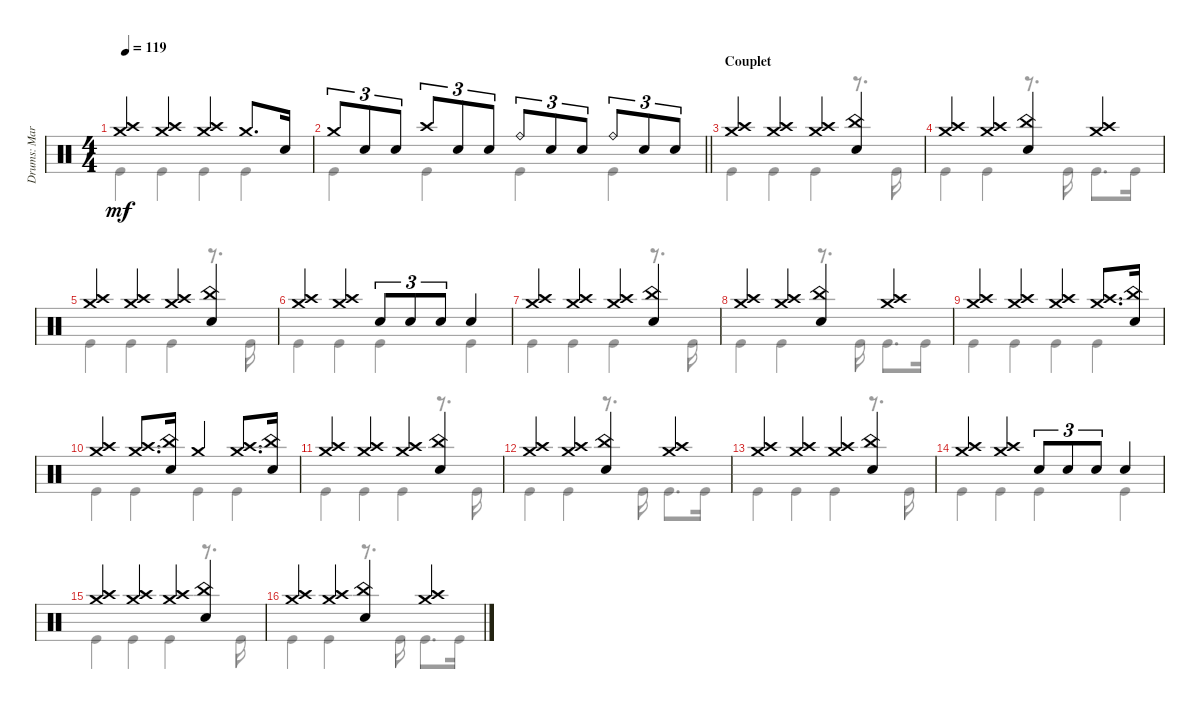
\track ("Drums: Mario Duplantier" "Drums: Mar") {instrument percussion}
\staff {score}
\articulation defaults
\voice
\ts (4 4)
\tempo 119
\clef neutral
\ks c
("Crash medium (hit)" "Crash high (hit)").4{dy mf} ("Crash medium (hit)" "Crash high (hit)").4 ("Crash medium (hit)" "Crash high (hit)").4 "Crash medium (hit)".8{d} "Snare (hit) 2".16 |
\barLineRight lightlight "Crash medium (hit)".8{tu (3 2)} "Snare (hit) 2".8{tu (3 2)} "Snare (hit) 2".8{tu (3 2)} "Crash high (hit)".8{tu (3 2)} "Snare (hit) 2".8{tu (3 2)} "Snare (hit) 2".8{tu (3 2)} "Ride (bell)".8{tu (3 2)} "Snare (hit) 2".8{tu (3 2)} "Snare (hit) 2".8{tu (3 2)} "Ride (bell)".8{tu (3 2)} "Snare (hit) 2".8{tu (3 2)} "Snare (hit) 2".8{tu (3 2)}
|
\section ("" "Couplet")
("Crash medium (hit)" "Crash high (hit)").4 ("Crash medium (hit)" "Crash high (hit)").4 ("Crash medium (hit)" "Crash high (hit)").4 ("Snare (hit) 2" "China (hit)").4 |
("Crash medium (hit)" "Crash high (hit)").4 ("Crash medium (hit)" "Crash high (hit)").4 ("Snare (hit) 2" "China (hit)").4 ("Crash medium (hit)" "Crash high (hit)").4 |
("Crash medium (hit)" "Crash high (hit)").4 ("Crash medium (hit)" "Crash high (hit)").4 ("Crash medium (hit)" "Crash high (hit)").4 ("Snare (hit) 2" "China (hit)").4 |
("Crash medium (hit)" "Crash high (hit)").4 ("Crash medium (hit)" "Crash high (hit)").4 "Snare (hit) 2".8{tu (3 2)} "Snare (hit) 2".8{tu (3 2)} "Snare (hit) 2".8{tu (3 2)} "Snare (hit) 2".4 |
("Crash medium (hit)" "Crash high (hit)").4 ("Crash medium (hit)" "Crash high (hit)").4 ("Crash medium (hit)" "Crash high (hit)").4 ("Snare (hit) 2" "China (hit)").4 |
("Crash medium (hit)" "Crash high (hit)").4 ("Crash medium (hit)" "Crash high (hit)").4 ("Snare (hit) 2" "China (hit)").4 ("Crash medium (hit)" "Crash high (hit)").4 |
("Crash medium (hit)" "Crash high (hit)").4 ("Crash medium (hit)" "Crash high (hit)").4 ("Crash medium (hit)" "Crash high (hit)").4 ("Crash medium (hit)" "Crash high (hit)").8{d} ("Snare (hit) 2" "China (hit)").16 |
("Crash medium (hit)" "Crash high (hit)").4 ("Crash medium (hit)" "Crash high (hit)").8{d} ("Snare (hit) 2" "China (hit)").16 "Crash medium (hit)".4 ("Crash medium (hit)" "Crash high (hit)").8{d} ("Snare (hit) 2" "China (hit)").16 |
("Crash medium (hit)" "Crash high (hit)").4 ("Crash medium (hit)" "Crash high (hit)").4 ("Crash medium (hit)" "Crash high (hit)").4 ("Snare (hit) 2" "China (hit)").4 |
("Crash medium (hit)" "Crash high (hit)").4 ("Crash medium (hit)" "Crash high (hit)").4 ("Snare (hit) 2" "China (hit)").4 ("Crash medium (hit)" "Crash high (hit)").4 |
("Crash medium (hit)" "Crash high (hit)").4 ("Crash medium (hit)" "Crash high (hit)").4 ("Crash medium (hit)" "Crash high (hit)").4 ("Snare (hit) 2" "China (hit)").4 |
("Crash medium (hit)" "Crash high (hit)").4 ("Crash medium (hit)" "Crash high (hit)").4 "Snare (hit) 2".8{tu (3 2)} "Snare (hit) 2".8{tu (3 2)} "Snare (hit) 2".8{tu (3 2)} "Snare (hit) 2".4 |
("Crash medium (hit)" "Crash high (hit)").4 ("Crash medium (hit)" "Crash high (hit)").4 ("Crash medium (hit)" "Crash high (hit)").4 ("Snare (hit) 2" "China (hit)").4 |
("Crash medium (hit)" "Crash high (hit)").4 ("Crash medium (hit)" "Crash high (hit)").4 ("Snare (hit) 2" "China (hit)").4 ("Crash medium (hit)" "Crash high (hit)").4
\voice
\clef neutral
\ottava regular
\simile none
\ks c "Kick (hit)".4{dy mf} "Kick (hit)".4 "Kick (hit)".4 "Kick (hit)".4
|
\barLineRight lightlight "Kick (hit)".4 "Kick (hit)".4 "Kick (hit)".4 "Kick (hit)".4
|
"Kick (hit)".4 "Kick (hit)".4 "Kick (hit)".4 r.8{d} "Kick (hit)".16 |
"Kick (hit)".4 "Kick (hit)".4 r.8{d} "Kick (hit)".16 "Kick (hit)".8{d} "Kick (hit)".16 |
"Kick (hit)".4 "Kick (hit)".4 "Kick (hit)".4 r.8{d} "Kick (hit)".16 |
"Kick (hit)".4 "Kick (hit)".4 "Kick (hit)".4 "Kick (hit)".4 |
"Kick (hit)".4 "Kick (hit)".4 "Kick (hit)".4 r.8{d} "Kick (hit)".16 |
"Kick (hit)".4 "Kick (hit)".4 r.8{d} "Kick (hit)".16 "Kick (hit)".8{d} "Kick (hit)".16 |
"Kick (hit)".4 "Kick (hit)".4 "Kick (hit)".4 "Kick (hit)".4 |
"Kick (hit)".4 "Kick (hit)".4 "Kick (hit)".4 "Kick (hit)".4 |
"Kick (hit)".4 "Kick (hit)".4 "Kick (hit)".4 r.8{d} "Kick (hit)".16 |
"Kick (hit)".4 "Kick (hit)".4 r.8{d} "Kick (hit)".16 "Kick (hit)".8{d} "Kick (hit)".16 |
"Kick (hit)".4 "Kick (hit)".4 "Kick (hit)".4 r.8{d} "Kick (hit)".16 |
"Kick (hit)".4 "Kick (hit)".4 "Kick (hit)".4 "Kick (hit)".4 |
"Kick (hit)".4 "Kick (hit)".4 "Kick (hit)".4 r.8{d} "Kick (hit)".16 |
"Kick (hit)".4 "Kick (hit)".4 r.8{d} "Kick (hit)".16 "Kick (hit)".8{d} "Kick (hit)".16
